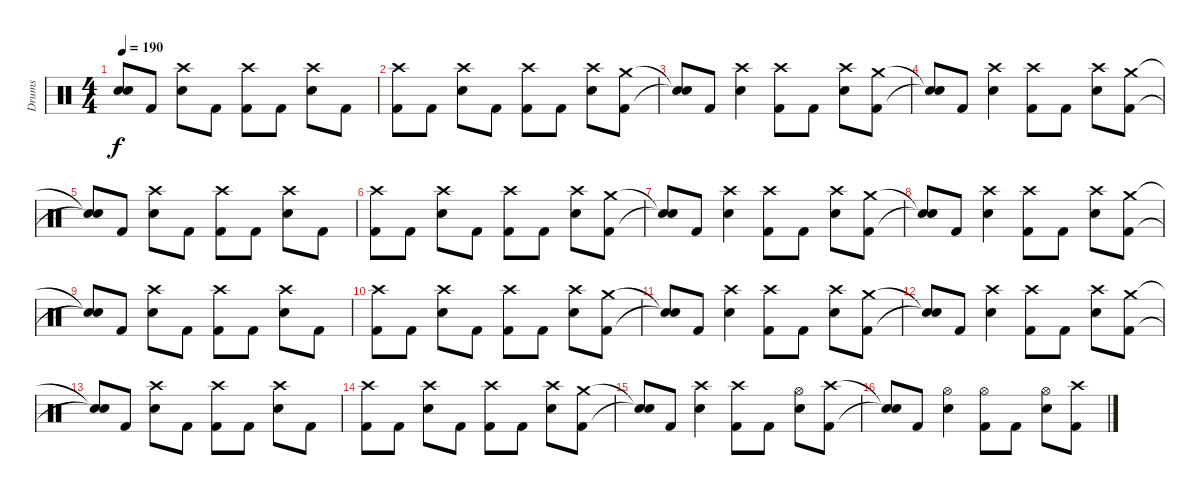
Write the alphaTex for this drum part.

\track ("Drums" "Drums") {instrument percussion}
\staff {score}
\articulation defaults
\ts (4 4)
\tempo 190
\clef neutral
\ks c
("Snare (hit)"{t} "Snare (hit)"{t}).8{dy f} "Kick (hit) 2".8 ("Crash high (hit)" "Electric Snare (hit)").8 "Kick (hit) 2".8 ("Crash high (hit)" "Kick (hit) 2").8 "Kick (hit) 2".8 ("Crash high (hit)" "Electric Snare (hit)").8 "Kick (hit) 2".8 |
("Crash high (hit)" "Kick (hit) 2").8 "Kick (hit) 2".8 ("Crash high (hit)" "Electric Snare (hit)").8 "Kick (hit) 2".8 ("Crash high (hit)" "Kick (hit) 2").8 "Kick (hit) 2".8 ("Crash high (hit)" "Electric Snare (hit)").8 ("Crash medium (hit)" "Kick (hit) 2").8 |
("Snare (hit)"{t} "Snare (hit)"{t}).8 "Kick (hit) 2".8 ("Crash high (hit)" "Electric Snare (hit)").4 ("Crash high (hit)" "Kick (hit) 2").8 "Kick (hit) 2".8 ("Crash high (hit)" "Electric Snare (hit)").8 ("Crash medium (hit)" "Kick (hit) 2").8 |
("Snare (hit)"{t} "Snare (hit)"{t}).8 "Kick (hit) 2".8 ("Crash high (hit)" "Electric Snare (hit)").4 ("Crash high (hit)" "Kick (hit) 2").8 "Kick (hit) 2".8 ("Crash high (hit)" "Electric Snare (hit)").8 ("Crash medium (hit)" "Kick (hit) 2").8 |
("Snare (hit)"{t} "Snare (hit)"{t}).8 "Kick (hit) 2".8 ("Crash high (hit)" "Electric Snare (hit)").8 "Kick (hit) 2".8 ("Crash high (hit)" "Kick (hit) 2").8 "Kick (hit) 2".8 ("Crash high (hit)" "Electric Snare (hit)").8 "Kick (hit) 2".8 |
("Crash high (hit)" "Kick (hit) 2").8 "Kick (hit) 2".8 ("Crash high (hit)" "Electric Snare (hit)").8 "Kick (hit) 2".8 ("Crash high (hit)" "Kick (hit) 2").8 "Kick (hit) 2".8 ("Crash high (hit)" "Electric Snare (hit)").8 ("Crash medium (hit)" "Kick (hit) 2").8 |
("Snare (hit)"{t} "Snare (hit)"{t}).8 "Kick (hit) 2".8 ("Crash high (hit)" "Electric Snare (hit)").4 ("Crash high (hit)" "Kick (hit) 2").8 "Kick (hit) 2".8 ("Crash high (hit)" "Electric Snare (hit)").8 ("Crash medium (hit)" "Kick (hit) 2").8 |
("Snare (hit)"{t} "Snare (hit)"{t}).8 "Kick (hit) 2".8 ("Crash high (hit)" "Electric Snare (hit)").4 ("Crash high (hit)" "Kick (hit) 2").8 "Kick (hit) 2".8 ("Crash high (hit)" "Electric Snare (hit)").8 ("Crash medium (hit)" "Kick (hit) 2").8 |
("Snare (hit)"{t} "Snare (hit)"{t}).8 "Kick (hit) 2".8 ("Crash high (hit)" "Electric Snare (hit)").8 "Kick (hit) 2".8 ("Crash high (hit)" "Kick (hit) 2").8 "Kick (hit) 2".8 ("Crash high (hit)" "Electric Snare (hit)").8 "Kick (hit) 2".8 |
("Crash high (hit)" "Kick (hit) 2").8 "Kick (hit) 2".8 ("Crash high (hit)" "Electric Snare (hit)").8 "Kick (hit) 2".8 ("Crash high (hit)" "Kick (hit) 2").8 "Kick (hit) 2".8 ("Crash high (hit)" "Electric Snare (hit)").8 ("Crash medium (hit)" "Kick (hit) 2").8 |
("Snare (hit)"{t} "Snare (hit)"{t}).8 "Kick (hit) 2".8 ("Crash high (hit)" "Electric Snare (hit)").4 ("Crash high (hit)" "Kick (hit) 2").8 "Kick (hit) 2".8 ("Crash high (hit)" "Electric Snare (hit)").8 ("Crash medium (hit)" "Kick (hit) 2").8 |
("Snare (hit)"{t} "Snare (hit)"{t}).8 "Kick (hit) 2".8 ("Crash high (hit)" "Electric Snare (hit)").4 ("Crash high (hit)" "Kick (hit) 2").8 "Kick (hit) 2".8 ("Crash high (hit)" "Electric Snare (hit)").8 ("Crash medium (hit)" "Kick (hit) 2").8 |
("Snare (hit)"{t} "Snare (hit)"{t}).8 "Kick (hit) 2".8 ("Crash high (hit)" "Electric Snare (hit)").8 "Kick (hit) 2".8 ("Crash high (hit)" "Kick (hit) 2").8 "Kick (hit) 2".8 ("Crash high (hit)" "Electric Snare (hit)").8 "Kick (hit) 2".8 |
("Crash high (hit)" "Kick (hit) 2").8 "Kick (hit) 2".8 ("Crash high (hit)" "Electric Snare (hit)").8 "Kick (hit) 2".8 ("Crash high (hit)" "Kick (hit) 2").8 "Kick (hit) 2".8 ("Crash high (hit)" "Electric Snare (hit)").8 ("Crash medium (hit)" "Kick (hit) 2").8 |
("Snare (hit)"{t} "Snare (hit)"{t}).8 "Kick (hit) 2".8 ("Crash high (hit)" "Electric Snare (hit)").4 ("Crash high (hit)" "Kick (hit) 2").8 "Kick (hit) 2".8 ("Hi-Hat (open)" "Electric Snare (hit)").8 ("Crash high (hit)" "Kick (hit) 2").8 |
("Snare (hit)"{t} "Snare (hit)"{t}).8 "Kick (hit) 2".8 ("Hi-Hat (open)" "Electric Snare (hit)").4 ("Hi-Hat (open)" "Kick (hit) 2").8 "Kick (hit) 2".8 ("Hi-Hat (open)" "Electric Snare (hit)").8 ("Crash high (hit)" "Kick (hit) 2").8
